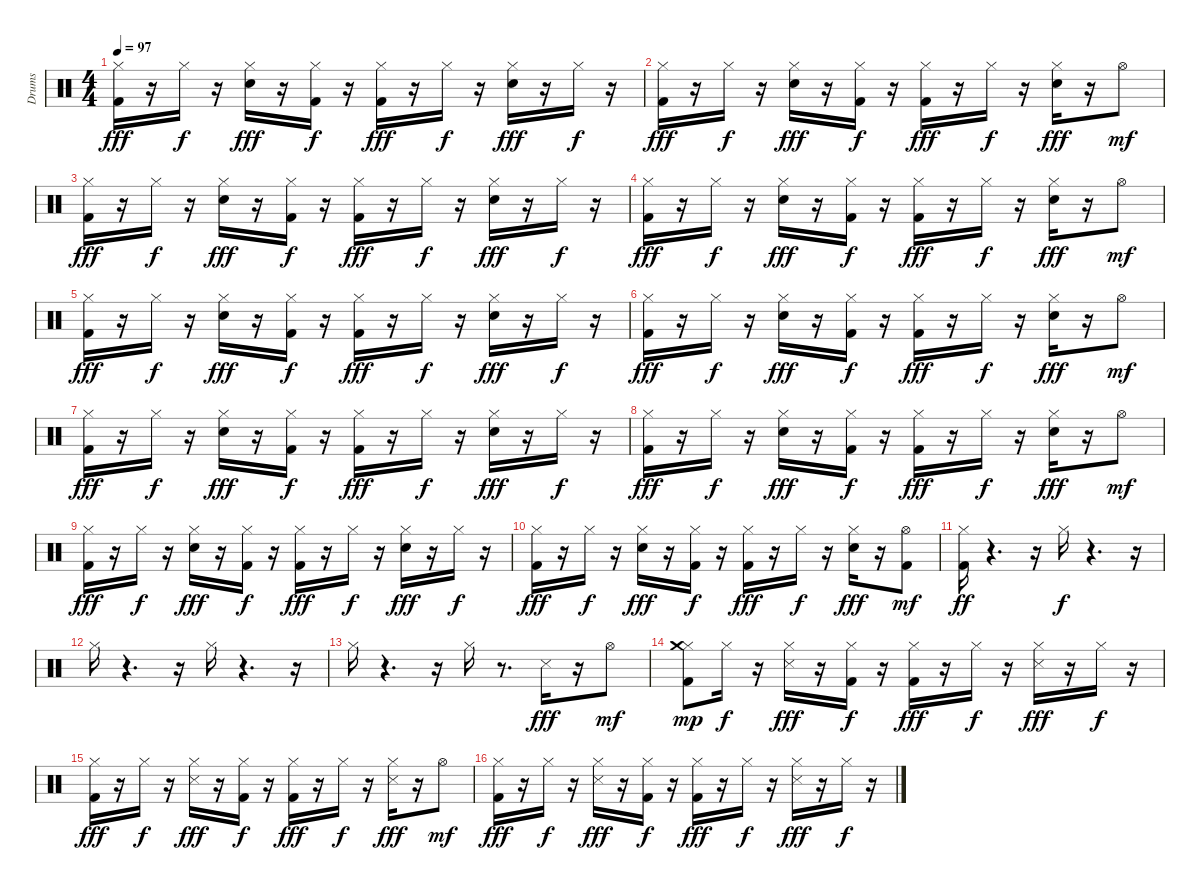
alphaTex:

\track ("Drums" "Drums") {instrument percussion}
\staff {score}
\articulation defaults
\ts (4 4)
\tempo 97
\clef neutral
\ks c
("Kick (hit) 2" "Hi-Hat (closed)").16{dy fff} r.16 "Hi-Hat (closed)".16{dy f} r.16 ("Electric Snare (hit)" "Hi-Hat (closed)").16{dy fff} r.16 ("Kick (hit) 2" "Hi-Hat (closed)").16{dy f} r.16 ("Kick (hit) 2" "Hi-Hat (closed)").16{dy fff} r.16 "Hi-Hat (closed)".16{dy f} r.16 ("Electric Snare (hit)" "Hi-Hat (closed)").16{dy fff} r.16 "Hi-Hat (closed)".16{dy f} r.16 |
("Kick (hit) 2" "Hi-Hat (closed)").16{dy fff} r.16 "Hi-Hat (closed)".16{dy f} r.16 ("Electric Snare (hit)" "Hi-Hat (closed)").16{dy fff} r.16 ("Kick (hit) 2" "Hi-Hat (closed)").16{dy f} r.16 ("Kick (hit) 2" "Hi-Hat (closed)").16{dy fff} r.16 "Hi-Hat (closed)".16{dy f} r.16 ("Electric Snare (hit)" "Hi-Hat (closed)").16{dy fff} r.16 "Hi-Hat (open)".8{dy mf} |
("Kick (hit) 2" "Hi-Hat (closed)").16{dy fff} r.16 "Hi-Hat (closed)".16{dy f} r.16 ("Electric Snare (hit)" "Hi-Hat (closed)").16{dy fff} r.16 ("Kick (hit) 2" "Hi-Hat (closed)").16{dy f} r.16 ("Kick (hit) 2" "Hi-Hat (closed)").16{dy fff} r.16 "Hi-Hat (closed)".16{dy f} r.16 ("Electric Snare (hit)" "Hi-Hat (closed)").16{dy fff} r.16 "Hi-Hat (closed)".16{dy f} r.16 |
("Kick (hit) 2" "Hi-Hat (closed)").16{dy fff} r.16 "Hi-Hat (closed)".16{dy f} r.16 ("Electric Snare (hit)" "Hi-Hat (closed)").16{dy fff} r.16 ("Kick (hit) 2" "Hi-Hat (closed)").16{dy f} r.16 ("Kick (hit) 2" "Hi-Hat (closed)").16{dy fff} r.16 "Hi-Hat (closed)".16{dy f} r.16 ("Electric Snare (hit)" "Hi-Hat (closed)").16{dy fff} r.16 "Hi-Hat (open)".8{dy mf} |
("Kick (hit) 2" "Hi-Hat (closed)").16{dy fff} r.16 "Hi-Hat (closed)".16{dy f} r.16 ("Electric Snare (hit)" "Hi-Hat (closed)").16{dy fff} r.16 ("Kick (hit) 2" "Hi-Hat (closed)").16{dy f} r.16 ("Kick (hit) 2" "Hi-Hat (closed)").16{dy fff} r.16 "Hi-Hat (closed)".16{dy f} r.16 ("Electric Snare (hit)" "Hi-Hat (closed)").16{dy fff} r.16 "Hi-Hat (closed)".16{dy f} r.16 |
("Kick (hit) 2" "Hi-Hat (closed)").16{dy fff} r.16 "Hi-Hat (closed)".16{dy f} r.16 ("Electric Snare (hit)" "Hi-Hat (closed)").16{dy fff} r.16 ("Kick (hit) 2" "Hi-Hat (closed)").16{dy f} r.16 ("Kick (hit) 2" "Hi-Hat (closed)").16{dy fff} r.16 "Hi-Hat (closed)".16{dy f} r.16 ("Electric Snare (hit)" "Hi-Hat (closed)").16{dy fff} r.16 "Hi-Hat (open)".8{dy mf} |
("Kick (hit) 2" "Hi-Hat (closed)").16{dy fff} r.16 "Hi-Hat (closed)".16{dy f} r.16 ("Electric Snare (hit)" "Hi-Hat (closed)").16{dy fff} r.16 ("Kick (hit) 2" "Hi-Hat (closed)").16{dy f} r.16 ("Kick (hit) 2" "Hi-Hat (closed)").16{dy fff} r.16 "Hi-Hat (closed)".16{dy f} r.16 ("Electric Snare (hit)" "Hi-Hat (closed)").16{dy fff} r.16 "Hi-Hat (closed)".16{dy f} r.16 |
("Kick (hit) 2" "Hi-Hat (closed)").16{dy fff} r.16 "Hi-Hat (closed)".16{dy f} r.16 ("Electric Snare (hit)" "Hi-Hat (closed)").16{dy fff} r.16 ("Kick (hit) 2" "Hi-Hat (closed)").16{dy f} r.16 ("Kick (hit) 2" "Hi-Hat (closed)").16{dy fff} r.16 "Hi-Hat (closed)".16{dy f} r.16 ("Electric Snare (hit)" "Hi-Hat (closed)").16{dy fff} r.16 "Hi-Hat (open)".8{dy mf} |
("Kick (hit) 2" "Hi-Hat (closed)").16{dy fff} r.16 "Hi-Hat (closed)".16{dy f} r.16 ("Electric Snare (hit)" "Hi-Hat (closed)").16{dy fff} r.16 ("Kick (hit) 2" "Hi-Hat (closed)").16{dy f} r.16 ("Kick (hit) 2" "Hi-Hat (closed)").16{dy fff} r.16 "Hi-Hat (closed)".16{dy f} r.16 ("Electric Snare (hit)" "Hi-Hat (closed)").16{dy fff} r.16 "Hi-Hat (closed)".16{dy f} r.16 |
("Kick (hit) 2" "Hi-Hat (closed)").16{dy fff} r.16 "Hi-Hat (closed)".16{dy f} r.16 ("Electric Snare (hit)" "Hi-Hat (closed)").16{dy fff} r.16 ("Kick (hit) 2" "Hi-Hat (closed)").16{dy f} r.16 ("Kick (hit) 2" "Hi-Hat (closed)").16{dy fff} r.16 "Hi-Hat (closed)".16{dy f} r.16 ("Electric Snare (hit)" "Hi-Hat (closed)").16{dy fff} r.16 ("Kick (hit) 2" "Hi-Hat (open)").8{dy mf} |
("Kick (hit) 2" "Hi-Hat (closed)").16{dy ff} r.4{d} r.16 "Hi-Hat (closed)".16{dy f} r.4{d} r.16 |
"Hi-Hat (closed)".16 r.4{d} r.16 "Hi-Hat (closed)".16 r.4{d} r.16 |
"Hi-Hat (closed)".16 r.4{d} r.16 "Hi-Hat (closed)".16 r.8{d} "Snare (side stick) 3".16{dy fff} r.16 "Hi-Hat (open)".8{dy mf} |
("Kick (hit) 2" "Hi-Hat (closed)" "Crash medium (hit)").8{dy mp} "Hi-Hat (closed)".16{dy f} r.16 ("Hi-Hat (closed)" "Snare (side stick) 3").16{dy fff} r.16 ("Kick (hit) 2" "Hi-Hat (closed)").16{dy f} r.16 ("Kick (hit) 2" "Hi-Hat (closed)").16{dy fff} r.16 "Hi-Hat (closed)".16{dy f} r.16 ("Hi-Hat (closed)" "Snare (side stick) 3").16{dy fff} r.16 "Hi-Hat (closed)".16{dy f} r.16 |
("Kick (hit) 2" "Hi-Hat (closed)").16{dy fff} r.16 "Hi-Hat (closed)".16{dy f} r.16 ("Hi-Hat (closed)" "Snare (side stick) 3").16{dy fff} r.16 ("Kick (hit) 2" "Hi-Hat (closed)").16{dy f} r.16 ("Kick (hit) 2" "Hi-Hat (closed)").16{dy fff} r.16 "Hi-Hat (closed)".16{dy f} r.16 ("Hi-Hat (closed)" "Snare (side stick) 3").16{dy fff} r.16 "Hi-Hat (open)".8{dy mf} |
("Kick (hit) 2" "Hi-Hat (closed)").16{dy fff} r.16 "Hi-Hat (closed)".16{dy f} r.16 ("Hi-Hat (closed)" "Snare (side stick) 3").16{dy fff} r.16 ("Kick (hit) 2" "Hi-Hat (closed)").16{dy f} r.16 ("Kick (hit) 2" "Hi-Hat (closed)").16{dy fff} r.16 "Hi-Hat (closed)".16{dy f} r.16 ("Hi-Hat (closed)" "Snare (side stick) 3").16{dy fff} r.16 "Hi-Hat (closed)".16{dy f} r.16
